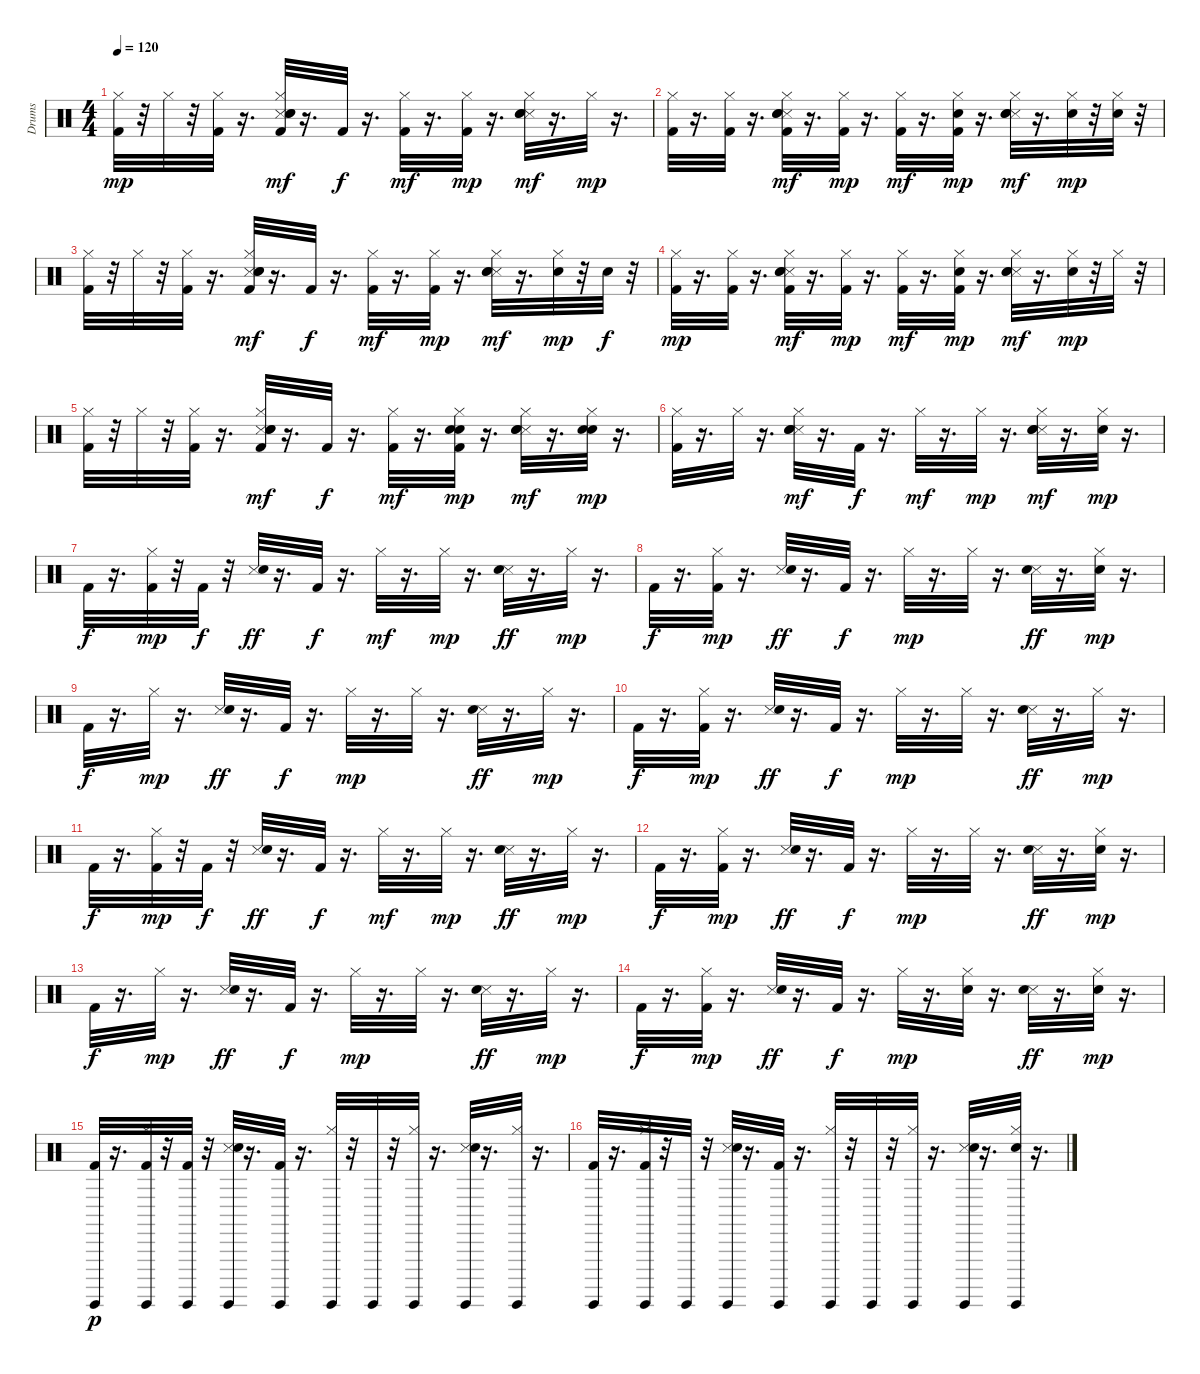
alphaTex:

\track ("Drums" "Drums") {instrument percussion}
\staff {score}
\articulation defaults
\ts (4 4)
\tempo 120
\clef neutral
\ks c
("Kick (hit) 2" "Hi-Hat (closed)").32{dy mp} r.32 "Hi-Hat (closed)".32 r.32 ("Kick (hit) 2" "Hi-Hat (closed)").32 r.16{d} ("Metronome (hit)" "Kick (hit) 2" "Snare (hit) 2" "Hand Clap (hit)" "Hi-Hat (closed)").32{dy mf} r.16{d} "Kick (hit) 2".32{dy f} r.16{d} ("Kick (hit) 2" "Hi-Hat (closed)").32{dy mf} r.16{d} ("Kick (hit) 2" "Hi-Hat (closed)").32{dy mp} r.16{d} ("Metronome (hit)" "Snare (hit) 2" "Hand Clap (hit)" "Hi-Hat (closed)").32{dy mf} r.16{d} "Hi-Hat (closed)".32{dy mp} r.16{d} |
("Kick (hit) 2" "Hi-Hat (closed)").32 r.16{d} ("Kick (hit) 2" "Hi-Hat (closed)").32 r.16{d} ("Metronome (hit)" "Kick (hit) 2" "Snare (hit) 2" "Hand Clap (hit)" "Hi-Hat (closed)").32{dy mf} r.16{d} ("Kick (hit) 2" "Hi-Hat (closed)").32{dy mp} r.16{d} ("Kick (hit) 2" "Hi-Hat (closed)").32{dy mf} r.16{d} ("Kick (hit) 2" "Hand Clap (hit)" "Hi-Hat (closed)").32{dy mp} r.16{d} ("Metronome (hit)" "Snare (hit) 2" "Hand Clap (hit)" "Hi-Hat (closed)").32{dy mf} r.16{d} ("Hand Clap (hit)" "Hi-Hat (closed)").32{dy mp} r.32 ("Hand Clap (hit)" "Hi-Hat (closed)").32 r.32 |
("Kick (hit) 2" "Hi-Hat (closed)").32 r.32 "Hi-Hat (closed)".32 r.32 ("Kick (hit) 2" "Hi-Hat (closed)").32 r.16{d} ("Metronome (hit)" "Kick (hit) 2" "Snare (hit) 2" "Hand Clap (hit)" "Hi-Hat (closed)").32{dy mf} r.16{d} "Kick (hit) 2".32{dy f} r.16{d} ("Kick (hit) 2" "Hi-Hat (closed)").32{dy mf} r.16{d} ("Kick (hit) 2" "Hi-Hat (closed)").32{dy mp} r.16{d} ("Metronome (hit)" "Snare (hit) 2" "Hand Clap (hit)" "Hi-Hat (closed)").32{dy mf} r.16{d} ("Hand Clap (hit)" "Hi-Hat (closed)").32{dy mp} r.32 "Hand Clap (hit)".32{dy f} r.32 |
("Kick (hit) 2" "Hi-Hat (closed)").32{dy mp} r.16{d} ("Kick (hit) 2" "Hi-Hat (closed)").32 r.16{d} ("Metronome (hit)" "Kick (hit) 2" "Snare (hit) 2" "Hand Clap (hit)" "Hi-Hat (closed)").32{dy mf} r.16{d} ("Kick (hit) 2" "Hi-Hat (closed)").32{dy mp} r.16{d} ("Kick (hit) 2" "Hi-Hat (closed)").32{dy mf} r.16{d} ("Kick (hit) 2" "Hand Clap (hit)" "Hi-Hat (closed)").32{dy mp} r.16{d} ("Metronome (hit)" "Snare (hit) 2" "Hand Clap (hit)" "Hi-Hat (closed)").32{dy mf} r.16{d} ("Hand Clap (hit)" "Hi-Hat (closed)").32{dy mp} r.32 "Hi-Hat (closed)".32 r.32 |
("Kick (hit) 2" "Hi-Hat (closed)").32 r.32 "Hi-Hat (closed)".32 r.32 ("Kick (hit) 2" "Hi-Hat (closed)").32 r.16{d} ("Metronome (hit)" "Kick (hit) 2" "Snare (hit) 2" "Hand Clap (hit)" "Hi-Hat (closed)").32{dy mf} r.16{d} "Kick (hit) 2".32{dy f} r.16{d} ("Kick (hit) 2" "Hi-Hat (closed)").32{dy mf} r.16{d} ("Kick (hit) 2" "Snare (hit) 2" "Hand Clap (hit)" "Hi-Hat (closed)").32{dy mp} r.16{d} ("Metronome (hit)" "Snare (hit) 2" "Hand Clap (hit)" "Hi-Hat (closed)").32{dy mf} r.16{d} ("Snare (hit) 2" "Hand Clap (hit)" "Hi-Hat (closed)").32{dy mp} r.16{d} |
("Kick (hit) 2" "Hi-Hat (closed)").32 r.16{d} "Hi-Hat (closed)".32 r.16{d} ("Metronome (hit)" "Snare (hit) 2" "Hand Clap (hit)" "Hi-Hat (closed)").32{dy mf} r.16{d} "Kick (hit) 2".32{dy f} r.16{d} "Hi-Hat (closed)".32{dy mf} r.16{d} "Hi-Hat (closed)".32{dy mp} r.16{d} ("Metronome (hit)" "Snare (hit) 2" "Hand Clap (hit)" "Hi-Hat (closed)").32{dy mf} r.16{d} ("Hand Clap (hit)" "Hi-Hat (closed)").32{dy mp} r.16{d} |
"Kick (hit) 2".32{dy f} r.16{d} ("Kick (hit) 2" "Hi-Hat (closed)").32{dy mp} r.32 "Kick (hit) 2".32{dy f} r.32 ("Metronome (hit)" "Snare (hit) 2").32{dy ff} r.16{d} "Kick (hit) 2".32{dy f} r.16{d} "Hi-Hat (closed)".32{dy mf} r.16{d} "Hi-Hat (closed)".32{dy mp} r.16{d} ("Metronome (hit)" "Snare (hit) 2").32{dy ff} r.16{d} "Hi-Hat (closed)".32{dy mp} r.16{d} |
"Kick (hit) 2".32{dy f} r.16{d} ("Kick (hit) 2" "Hi-Hat (closed)").32{dy mp} r.16{d} ("Metronome (hit)" "Snare (hit) 2").32{dy ff} r.16{d} "Kick (hit) 2".32{dy f} r.16{d} "Hi-Hat (closed)".32{dy mp} r.16{d} "Hi-Hat (closed)".32 r.16{d} ("Metronome (hit)" "Snare (hit) 2").32{dy ff} r.16{d} ("Snare (hit) 2" "Hi-Hat (closed)").32{dy mp} r.16{d} |
"Kick (hit) 2".32{dy f} r.16{d} "Hi-Hat (closed)".32{dy mp} r.16{d} ("Metronome (hit)" "Snare (hit) 2").32{dy ff} r.16{d} "Kick (hit) 2".32{dy f} r.16{d} "Hi-Hat (closed)".32{dy mp} r.16{d} "Hi-Hat (closed)".32 r.16{d} ("Metronome (hit)" "Snare (hit) 2").32{dy ff} r.16{d} "Hi-Hat (closed)".32{dy mp} r.16{d} |
"Kick (hit) 2".32{dy f} r.16{d} ("Kick (hit) 2" "Hi-Hat (closed)").32{dy mp} r.16{d} ("Metronome (hit)" "Snare (hit) 2").32{dy ff} r.16{d} "Kick (hit) 2".32{dy f} r.16{d} "Hi-Hat (closed)".32{dy mp} r.16{d} "Hi-Hat (closed)".32 r.16{d} ("Metronome (hit)" "Snare (hit) 2").32{dy ff} r.16{d} "Hi-Hat (closed)".32{dy mp} r.16{d} |
"Kick (hit) 2".32{dy f} r.16{d} ("Kick (hit) 2" "Hi-Hat (closed)").32{dy mp} r.32 "Kick (hit) 2".32{dy f} r.32 ("Metronome (hit)" "Snare (hit) 2").32{dy ff} r.16{d} "Kick (hit) 2".32{dy f} r.16{d} "Hi-Hat (closed)".32{dy mf} r.16{d} "Hi-Hat (closed)".32{dy mp} r.16{d} ("Metronome (hit)" "Snare (hit) 2").32{dy ff} r.16{d} "Hi-Hat (closed)".32{dy mp} r.16{d} |
"Kick (hit) 2".32{dy f} r.16{d} ("Kick (hit) 2" "Hi-Hat (closed)").32{dy mp} r.16{d} ("Metronome (hit)" "Snare (hit) 2").32{dy ff} r.16{d} "Kick (hit) 2".32{dy f} r.16{d} "Hi-Hat (closed)".32{dy mp} r.16{d} "Hi-Hat (closed)".32 r.16{d} ("Metronome (hit)" "Snare (hit) 2").32{dy ff} r.16{d} ("Snare (hit) 2" "Hi-Hat (closed)").32{dy mp} r.16{d} |
"Kick (hit) 2".32{dy f} r.16{d} "Hi-Hat (closed)".32{dy mp} r.16{d} ("Metronome (hit)" "Snare (hit) 2").32{dy ff} r.16{d} "Kick (hit) 2".32{dy f} r.16{d} "Hi-Hat (closed)".32{dy mp} r.16{d} "Hi-Hat (closed)".32 r.16{d} ("Metronome (hit)" "Snare (hit) 2").32{dy ff} r.16{d} "Hi-Hat (closed)".32{dy mp} r.16{d} |
"Kick (hit) 2".32{dy f} r.16{d} ("Kick (hit) 2" "Hi-Hat (closed)").32{dy mp} r.16{d} ("Metronome (hit)" "Snare (hit) 2").32{dy ff} r.16{d} "Kick (hit) 2".32{dy f} r.16{d} "Hi-Hat (closed)".32{dy mp} r.16{d} ("Snare (hit) 2" "Hi-Hat (closed)").32 r.16{d} ("Metronome (hit)" "Snare (hit) 2").32{dy ff} r.16{d} ("Snare (hit) 2" "Hi-Hat (closed)").32{dy mp} r.16{d} |
("Kick (hit) 2" "Guiro (hit)").32{dy p} r.16{d} ("Kick (hit) 2" "Hi-Hat (closed)" "Guiro (hit)").32 r.32 ("Kick (hit) 2" "Guiro (hit)").32 r.32 ("Metronome (hit)" "Snare (hit) 2" "Guiro (hit)").32 r.16{d} ("Kick (hit) 2" "Guiro (hit)").32 r.16{d} ("Hi-Hat (closed)" "Guiro (hit)").32 r.32 "Guiro (hit)".32 r.32 ("Hi-Hat (closed)" "Guiro (hit)").32 r.16{d} ("Metronome (hit)" "Snare (hit) 2" "Guiro (hit)").32 r.16{d} ("Hi-Hat (closed)" "Guiro (hit)").32 r.16{d} |
("Kick (hit) 2" "Guiro (hit)").32 r.16{d} ("Kick (hit) 2" "Hi-Hat (closed)" "Guiro (hit)").32 r.32 "Guiro (hit)".32 r.32 ("Metronome (hit)" "Snare (hit) 2" "Guiro (hit)").32 r.16{d} ("Kick (hit) 2" "Guiro (hit)").32 r.16{d} ("Hi-Hat (closed)" "Guiro (hit)").32 r.32 "Guiro (hit)".32 r.32 ("Hi-Hat (closed)" "Guiro (hit)").32 r.16{d} ("Metronome (hit)" "Snare (hit) 2" "Guiro (hit)").32 r.16{d} ("Snare (hit) 2" "Hi-Hat (closed)" "Guiro (hit)").32 r.16{d}
